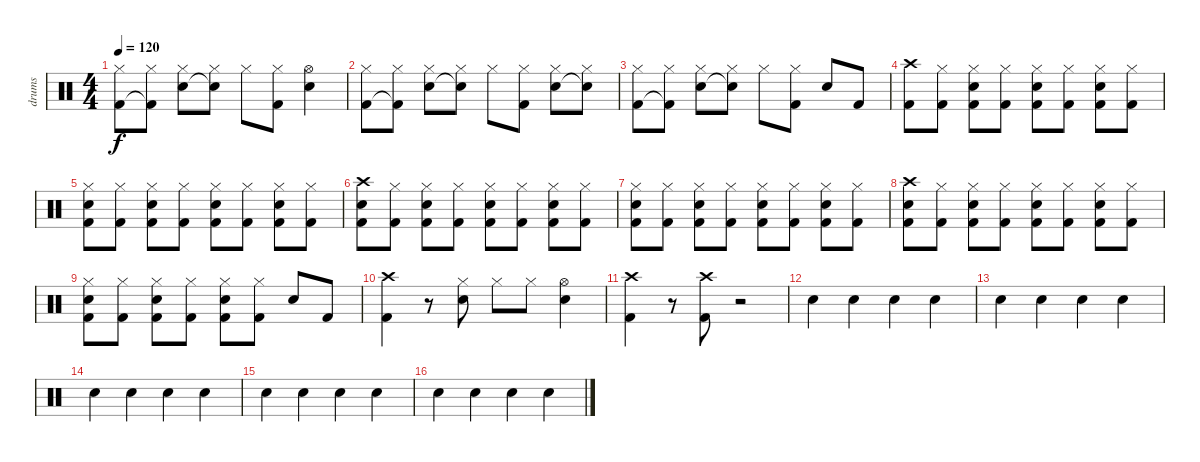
\track ("drums" "drums") {instrument percussion}
\staff {score}
\articulation defaults
\ts (4 4)
\tempo 120
\clef neutral
\ks c
("Hi-Hat (closed)" "Kick (hit) 2").8{dy f} ("Hi-Hat (closed)" "Kick (hit) 2"{t}).8 ("Hi-Hat (closed)" "Snare (hit) 2").8 ("Hi-Hat (closed)" "Snare (hit) 2"{t}).8 "Hi-Hat (closed)".8 ("Hi-Hat (closed)" "Kick (hit) 2").8 ("Hi-Hat (open)" "Snare (hit) 2").4 |
("Hi-Hat (closed)" "Kick (hit) 2").8 ("Hi-Hat (closed)" "Kick (hit) 2"{t}).8 ("Hi-Hat (closed)" "Snare (hit) 2").8 ("Hi-Hat (closed)" "Snare (hit) 2"{t}).8 "Hi-Hat (closed)".8 ("Hi-Hat (closed)" "Kick (hit) 2").8 ("Hi-Hat (closed)" "Snare (hit) 2").8 ("Hi-Hat (closed)" "Snare (hit) 2"{t}).8 |
("Hi-Hat (closed)" "Kick (hit) 2").8 ("Hi-Hat (closed)" "Kick (hit) 2"{t}).8 ("Hi-Hat (closed)" "Snare (hit) 2").8 ("Hi-Hat (closed)" "Snare (hit) 2"{t}).8 "Hi-Hat (closed)".8 ("Hi-Hat (closed)" "Kick (hit) 2").8 "Snare (hit) 2".8 "Kick (hit) 2".8 |
("Crash high (hit)" "Kick (hit) 2").8 ("Hi-Hat (closed)" "Kick (hit) 2").8 ("Hi-Hat (closed)" "Snare (hit) 2" "Kick (hit) 2").8 ("Hi-Hat (closed)" "Kick (hit) 2").8 ("Hi-Hat (closed)" "Snare (hit) 2" "Kick (hit) 2").8 ("Hi-Hat (closed)" "Kick (hit) 2").8 ("Hi-Hat (closed)" "Snare (hit) 2" "Kick (hit) 2").8 ("Hi-Hat (closed)" "Kick (hit) 2").8 |
("Hi-Hat (closed)" "Snare (hit) 2" "Kick (hit) 2").8 ("Hi-Hat (closed)" "Kick (hit) 2").8 ("Hi-Hat (closed)" "Snare (hit) 2" "Kick (hit) 2").8 ("Hi-Hat (closed)" "Kick (hit) 2").8 ("Hi-Hat (closed)" "Snare (hit) 2" "Kick (hit) 2").8 ("Hi-Hat (closed)" "Kick (hit) 2").8 ("Hi-Hat (closed)" "Snare (hit) 2" "Kick (hit) 2").8 ("Hi-Hat (closed)" "Kick (hit) 2").8 |
("Crash high (hit)" "Snare (hit) 2" "Kick (hit) 2").8 ("Hi-Hat (closed)" "Kick (hit) 2").8 ("Hi-Hat (closed)" "Snare (hit) 2" "Kick (hit) 2").8 ("Hi-Hat (closed)" "Kick (hit) 2").8 ("Hi-Hat (closed)" "Snare (hit) 2" "Kick (hit) 2").8 ("Hi-Hat (closed)" "Kick (hit) 2").8 ("Hi-Hat (closed)" "Snare (hit) 2" "Kick (hit) 2").8 ("Hi-Hat (closed)" "Kick (hit) 2").8 |
("Hi-Hat (closed)" "Snare (hit) 2" "Kick (hit) 2").8 ("Hi-Hat (closed)" "Kick (hit) 2").8 ("Hi-Hat (closed)" "Snare (hit) 2" "Kick (hit) 2").8 ("Hi-Hat (closed)" "Kick (hit) 2").8 ("Hi-Hat (closed)" "Snare (hit) 2" "Kick (hit) 2").8 ("Hi-Hat (closed)" "Kick (hit) 2").8 ("Hi-Hat (closed)" "Snare (hit) 2" "Kick (hit) 2").8 ("Hi-Hat (closed)" "Kick (hit) 2").8 |
("Crash high (hit)" "Snare (hit) 2" "Kick (hit) 2").8 ("Hi-Hat (closed)" "Kick (hit) 2").8 ("Hi-Hat (closed)" "Snare (hit) 2" "Kick (hit) 2").8 ("Hi-Hat (closed)" "Kick (hit) 2").8 ("Hi-Hat (closed)" "Snare (hit) 2" "Kick (hit) 2").8 ("Hi-Hat (closed)" "Kick (hit) 2").8 ("Hi-Hat (closed)" "Snare (hit) 2" "Kick (hit) 2").8 ("Hi-Hat (closed)" "Kick (hit) 2").8 |
("Hi-Hat (closed)" "Snare (hit) 2" "Kick (hit) 2").8 ("Hi-Hat (closed)" "Kick (hit) 2").8 ("Hi-Hat (closed)" "Snare (hit) 2" "Kick (hit) 2").8 ("Hi-Hat (closed)" "Kick (hit) 2").8 ("Hi-Hat (closed)" "Snare (hit) 2" "Kick (hit) 2").8 ("Hi-Hat (closed)" "Kick (hit) 2").8 "Snare (hit) 2".8 "Kick (hit) 2".8 |
("Crash high (hit)" "Kick (hit) 2").4 r.8 ("Hi-Hat (closed)" "Snare (hit) 2").8 "Hi-Hat (closed)".8 "Hi-Hat (closed)".8 ("Hi-Hat (open)" "Snare (hit) 2").4 |
("Crash high (hit)" "Kick (hit) 2").4 r.8 ("Crash high (hit)" "Kick (hit) 2").8 r.2 |
"Electric Snare (hit)".4 "Electric Snare (hit)".4 "Electric Snare (hit)".4 "Electric Snare (hit)".4 |
"Electric Snare (hit)".4 "Electric Snare (hit)".4 "Electric Snare (hit)".4 "Electric Snare (hit)".4 |
"Electric Snare (hit)".4 "Electric Snare (hit)".4 "Electric Snare (hit)".4 "Electric Snare (hit)".4 |
"Electric Snare (hit)".4 "Electric Snare (hit)".4 "Electric Snare (hit)".4 "Electric Snare (hit)".4 |
"Electric Snare (hit)".4 "Electric Snare (hit)".4 "Electric Snare (hit)".4 "Electric Snare (hit)".4
